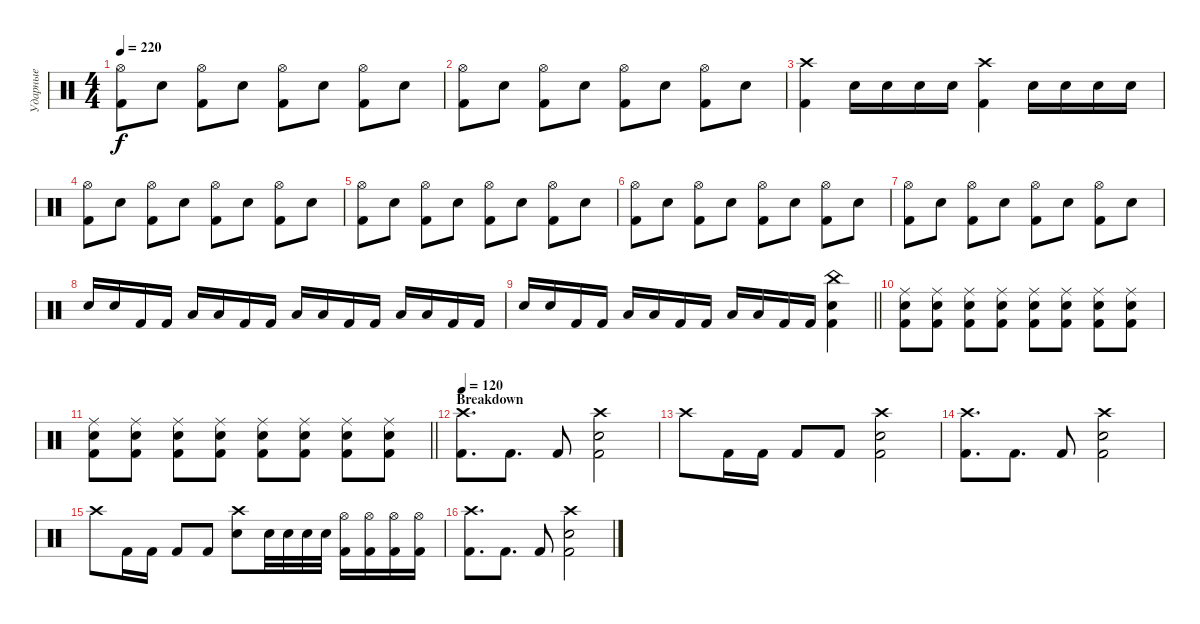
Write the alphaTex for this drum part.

\track ("Ударные" "Ударные") {instrument percussion}
\staff {score}
\articulation defaults
\ts (4 4)
\tempo 220
\clef neutral
\ks c
("Hi-Hat (open)" "Kick (hit) 2").8{dy f} "Electric Snare (hit)".8 ("Hi-Hat (open)" "Kick (hit) 2").8 "Electric Snare (hit)".8 ("Hi-Hat (open)" "Kick (hit) 2").8 "Electric Snare (hit)".8 ("Hi-Hat (open)" "Kick (hit) 2").8 "Electric Snare (hit)".8 |
("Hi-Hat (open)" "Kick (hit) 2").8 "Electric Snare (hit)".8 ("Hi-Hat (open)" "Kick (hit) 2").8 "Electric Snare (hit)".8 ("Hi-Hat (open)" "Kick (hit) 2").8 "Electric Snare (hit)".8 ("Hi-Hat (open)" "Kick (hit) 2").8 "Electric Snare (hit)".8 |
("Crash high (hit)" "Kick (hit) 2").4 "Electric Snare (hit)".16 "Electric Snare (hit)".16 "Electric Snare (hit)".16 "Electric Snare (hit)".16 ("Crash high (hit)" "Kick (hit) 2").4 "Electric Snare (hit)".16 "Electric Snare (hit)".16 "Electric Snare (hit)".16 "Electric Snare (hit)".16 |
("Hi-Hat (open)" "Kick (hit) 2").8 "Electric Snare (hit)".8 ("Hi-Hat (open)" "Kick (hit) 2").8 "Electric Snare (hit)".8 ("Hi-Hat (open)" "Kick (hit) 2").8 "Electric Snare (hit)".8 ("Hi-Hat (open)" "Kick (hit) 2").8 "Electric Snare (hit)".8 |
("Hi-Hat (open)" "Kick (hit) 2").8 "Electric Snare (hit)".8 ("Hi-Hat (open)" "Kick (hit) 2").8 "Electric Snare (hit)".8 ("Hi-Hat (open)" "Kick (hit) 2").8 "Electric Snare (hit)".8 ("Hi-Hat (open)" "Kick (hit) 2").8 "Electric Snare (hit)".8 |
("Hi-Hat (open)" "Kick (hit) 2").8 "Electric Snare (hit)".8 ("Hi-Hat (open)" "Kick (hit) 2").8 "Electric Snare (hit)".8 ("Hi-Hat (open)" "Kick (hit) 2").8 "Electric Snare (hit)".8 ("Hi-Hat (open)" "Kick (hit) 2").8 "Electric Snare (hit)".8 |
("Hi-Hat (open)" "Kick (hit) 2").8 "Electric Snare (hit)".8 ("Hi-Hat (open)" "Kick (hit) 2").8 "Electric Snare (hit)".8 ("Hi-Hat (open)" "Kick (hit) 2").8 "Electric Snare (hit)".8 ("Hi-Hat (open)" "Kick (hit) 2").8 "Electric Snare (hit)".8 |
"Electric Snare (hit)".16 "Electric Snare (hit)".16 "Kick (hit) 2".16 "Kick (hit) 2".16 "Low Tom (hit)".16 "Low Tom (hit)".16 "Kick (hit) 2".16 "Kick (hit) 2".16 "Low Tom (hit)".16 "Low Floor Tom (hit)".16 "Kick (hit) 2".16 "Kick (hit) 2".16 "Low Floor Tom (hit)".16 "Low Floor Tom (hit)".16 "Kick (hit) 2".16 "Kick (hit) 2".16 |
\barLineRight lightlight "Electric Snare (hit)".16 "Electric Snare (hit)".16 "Kick (hit) 2".16 "Kick (hit) 2".16 "Low Tom (hit)".16 "Low Tom (hit)".16 "Kick (hit) 2".16 "Kick (hit) 2".16 "Low Tom (hit)".16 "Low Floor Tom (hit)".16 "Kick (hit) 2".16 "Kick (hit) 2".16
("China (hit)" "Electric Snare (hit)" "Kick (hit) 2").4 |
("Ride (middle)" "Electric Snare (hit)" "Kick (hit) 2").8 ("Ride (middle)" "Electric Snare (hit)" "Kick (hit) 2").8 ("Ride (middle)" "Electric Snare (hit)" "Kick (hit) 2").8 ("Ride (middle)" "Electric Snare (hit)" "Kick (hit) 2").8 ("Ride (middle)" "Electric Snare (hit)" "Kick (hit) 2").8 ("Ride (middle)" "Electric Snare (hit)" "Kick (hit) 2").8 ("Ride (middle)" "Electric Snare (hit)" "Kick (hit) 2").8 ("Ride (middle)" "Electric Snare (hit)" "Kick (hit) 2").8 |
\barLineRight lightlight
("Ride (middle)" "Electric Snare (hit)" "Kick (hit) 2").8 ("Ride (middle)" "Electric Snare (hit)" "Kick (hit) 2").8 ("Ride (middle)" "Electric Snare (hit)" "Kick (hit) 2").8 ("Ride (middle)" "Electric Snare (hit)" "Kick (hit) 2").8 ("Ride (middle)" "Electric Snare (hit)" "Kick (hit) 2").8 ("Ride (middle)" "Electric Snare (hit)" "Kick (hit) 2").8 ("Ride (middle)" "Electric Snare (hit)" "Kick (hit) 2").8 ("Ride (middle)" "Electric Snare (hit)" "Kick (hit) 2").8 |
\section ("" "Breakdown")
\tempo 120
("Crash high (hit)" "Kick (hit) 2").8{d} "Kick (hit) 2".8{d} "Kick (hit) 2".8 ("Crash high (hit)" "Electric Snare (hit)" "Kick (hit) 2").2 |
"Crash high (hit)".8 "Kick (hit) 2".16 "Kick (hit) 2".16 "Kick (hit) 2".8 "Kick (hit) 2".8 ("Crash high (hit)" "Electric Snare (hit)" "Kick (hit) 2").2 |
("Crash high (hit)" "Kick (hit) 2").8{d} "Kick (hit) 2".8{d} "Kick (hit) 2".8 ("Crash high (hit)" "Electric Snare (hit)" "Kick (hit) 2").2 |
"Crash high (hit)".8 "Kick (hit) 2".16 "Kick (hit) 2".16 "Kick (hit) 2".8 "Kick (hit) 2".8 ("Crash high (hit)" "Electric Snare (hit)").8 "Electric Snare (hit)".32 "Electric Snare (hit)".32 "Electric Snare (hit)".32 "Electric Snare (hit)".32 ("Hi-Hat (open)" "Kick (hit) 2").16 ("Hi-Hat (open)" "Kick (hit) 2").16 ("Hi-Hat (open)" "Kick (hit) 2").16 ("Hi-Hat (open)" "Kick (hit) 2").16 |
("Crash high (hit)" "Kick (hit) 2").8{d} "Kick (hit) 2".8{d} "Kick (hit) 2".8 ("Crash high (hit)" "Electric Snare (hit)" "Kick (hit) 2").2
